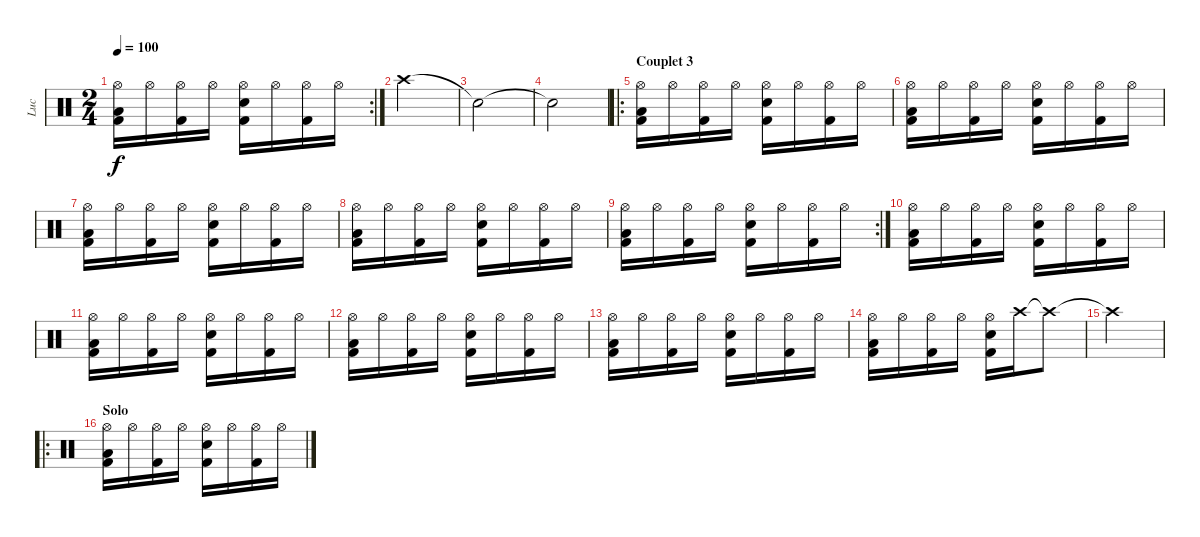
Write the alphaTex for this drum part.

\track ("Luc" "Luc") {instrument percussion}
\staff {score}
\articulation defaults
\rc 2
\ts (2 4)
\tempo 100
\clef neutral
\ks c
("Hi-Hat (open)" "Low Tom (hit)" "Kick (hit) 2").16{dy f} "Hi-Hat (open)".16 ("Hi-Hat (open)" "Kick (hit) 2").16 "Hi-Hat (open)".16 ("Hi-Hat (open)" "Snare (hit) 2" "Kick (hit) 2").16 "Hi-Hat (open)".16 ("Hi-Hat (open)" "Kick (hit) 2").16 "Hi-Hat (open)".16 |
"Crash high (hit)".2 |
"Snare (hit)"{t}.2 |
"Snare (hit)"{t}.2 |
\ro
\section ("" "Couplet 3")
("Hi-Hat (open)" "Low Tom (hit)" "Kick (hit) 2").16 "Hi-Hat (open)".16 ("Hi-Hat (open)" "Kick (hit) 2").16 "Hi-Hat (open)".16 ("Hi-Hat (open)" "Snare (hit) 2" "Kick (hit) 2").16 "Hi-Hat (open)".16 ("Hi-Hat (open)" "Kick (hit) 2").16 "Hi-Hat (open)".16 |
("Hi-Hat (open)" "Low Tom (hit)" "Kick (hit) 2").16 "Hi-Hat (open)".16 ("Hi-Hat (open)" "Kick (hit) 2").16 "Hi-Hat (open)".16 ("Hi-Hat (open)" "Snare (hit) 2" "Kick (hit) 2").16 "Hi-Hat (open)".16 ("Hi-Hat (open)" "Kick (hit) 2").16 "Hi-Hat (open)".16 |
("Hi-Hat (open)" "Low Tom (hit)" "Kick (hit) 2").16 "Hi-Hat (open)".16 ("Hi-Hat (open)" "Kick (hit) 2").16 "Hi-Hat (open)".16 ("Hi-Hat (open)" "Snare (hit) 2" "Kick (hit) 2").16 "Hi-Hat (open)".16 ("Hi-Hat (open)" "Kick (hit) 2").16 "Hi-Hat (open)".16 |
("Hi-Hat (open)" "Low Tom (hit)" "Kick (hit) 2").16 "Hi-Hat (open)".16 ("Hi-Hat (open)" "Kick (hit) 2").16 "Hi-Hat (open)".16 ("Hi-Hat (open)" "Snare (hit) 2" "Kick (hit) 2").16 "Hi-Hat (open)".16 ("Hi-Hat (open)" "Kick (hit) 2").16 "Hi-Hat (open)".16 |
\rc 2
("Hi-Hat (open)" "Low Tom (hit)" "Kick (hit) 2").16 "Hi-Hat (open)".16 ("Hi-Hat (open)" "Kick (hit) 2").16 "Hi-Hat (open)".16 ("Hi-Hat (open)" "Snare (hit) 2" "Kick (hit) 2").16 "Hi-Hat (open)".16 ("Hi-Hat (open)" "Kick (hit) 2").16 "Hi-Hat (open)".16 |
("Hi-Hat (open)" "Low Tom (hit)" "Kick (hit) 2").16 "Hi-Hat (open)".16 ("Hi-Hat (open)" "Kick (hit) 2").16 "Hi-Hat (open)".16 ("Hi-Hat (open)" "Snare (hit) 2" "Kick (hit) 2").16 "Hi-Hat (open)".16 ("Hi-Hat (open)" "Kick (hit) 2").16 "Hi-Hat (open)".16 |
("Hi-Hat (open)" "Low Tom (hit)" "Kick (hit) 2").16 "Hi-Hat (open)".16 ("Hi-Hat (open)" "Kick (hit) 2").16 "Hi-Hat (open)".16 ("Hi-Hat (open)" "Snare (hit) 2" "Kick (hit) 2").16 "Hi-Hat (open)".16 ("Hi-Hat (open)" "Kick (hit) 2").16 "Hi-Hat (open)".16 |
("Hi-Hat (open)" "Low Tom (hit)" "Kick (hit) 2").16 "Hi-Hat (open)".16 ("Hi-Hat (open)" "Kick (hit) 2").16 "Hi-Hat (open)".16 ("Hi-Hat (open)" "Snare (hit) 2" "Kick (hit) 2").16 "Hi-Hat (open)".16 ("Hi-Hat (open)" "Kick (hit) 2").16 "Hi-Hat (open)".16 |
("Hi-Hat (open)" "Low Tom (hit)" "Kick (hit) 2").16 "Hi-Hat (open)".16 ("Hi-Hat (open)" "Kick (hit) 2").16 "Hi-Hat (open)".16 ("Hi-Hat (open)" "Snare (hit) 2" "Kick (hit) 2").16 "Hi-Hat (open)".16 ("Hi-Hat (open)" "Kick (hit) 2").16 "Hi-Hat (open)".16 |
("Hi-Hat (open)" "Low Tom (hit)" "Kick (hit) 2").16 "Hi-Hat (open)".16 ("Hi-Hat (open)" "Kick (hit) 2").16 "Hi-Hat (open)".16 ("Hi-Hat (open)" "Snare (hit) 2" "Kick (hit) 2").16 "Crash high (hit)".16 "Crash high (hit)"{t}.8 |
"Crash high (hit)"{t}.2 |
\ro
\section ("" "Solo")
("Hi-Hat (open)" "Low Tom (hit)" "Kick (hit) 2").16 "Hi-Hat (open)".16 ("Hi-Hat (open)" "Kick (hit) 2").16 "Hi-Hat (open)".16 ("Hi-Hat (open)" "Snare (hit) 2" "Kick (hit) 2").16 "Hi-Hat (open)".16 ("Hi-Hat (open)" "Kick (hit) 2").16 "Hi-Hat (open)".16
